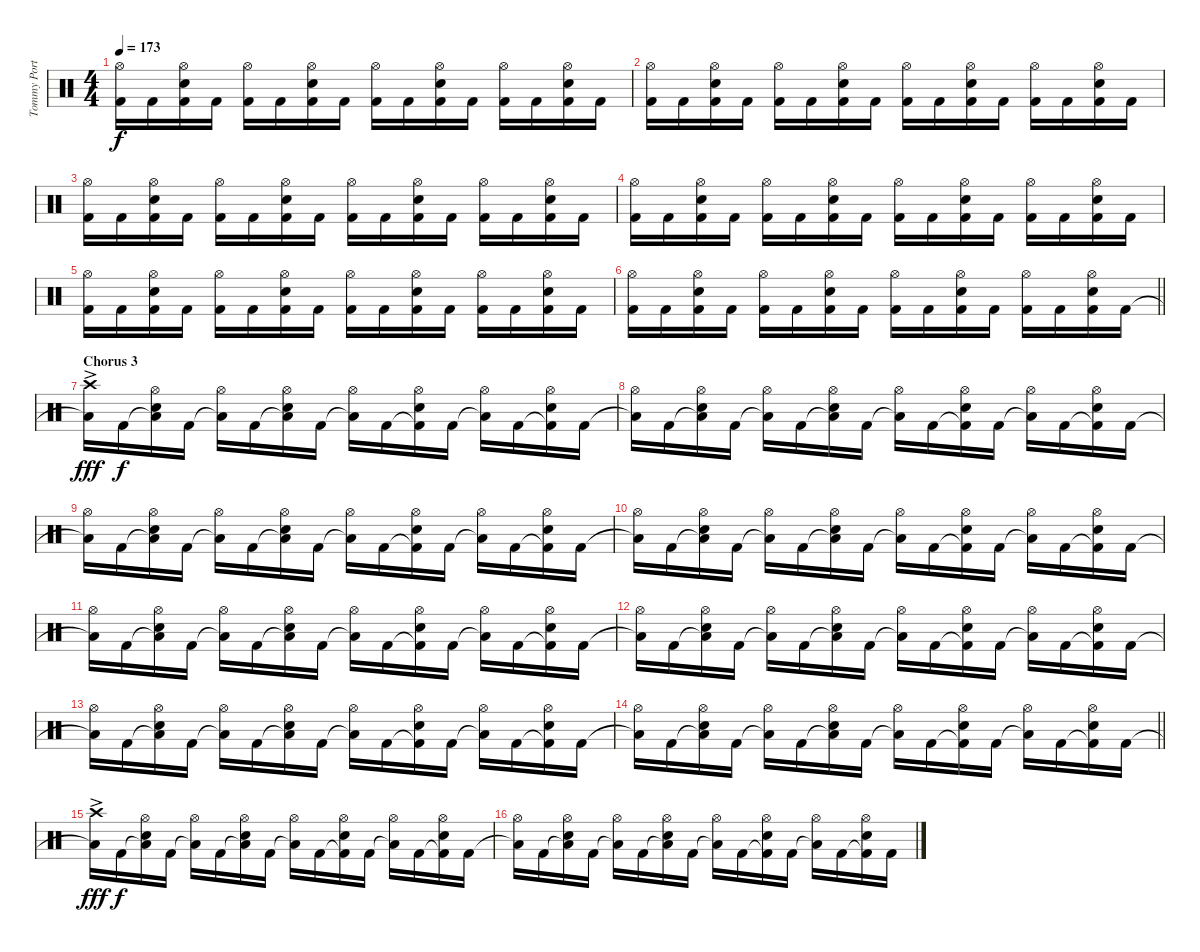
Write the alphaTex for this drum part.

\track ("Tommy Portimo - Drums" "Tommy Port") {instrument percussion}
\staff {score}
\articulation defaults
\ts (4 4)
\tempo 173
\clef neutral
\ks c
("Kick (hit) 2" "Hi-Hat (open)").16{dy f} "Kick (hit) 2".16 ("Kick (hit) 2" "Electric Snare (hit)" "Hi-Hat (open)").16 "Kick (hit) 2".16 ("Kick (hit) 2" "Hi-Hat (open)").16 "Kick (hit) 2".16 ("Kick (hit) 2" "Electric Snare (hit)" "Hi-Hat (open)").16 "Kick (hit) 2".16 ("Kick (hit) 2" "Hi-Hat (open)").16 "Kick (hit) 2".16 ("Kick (hit) 2" "Electric Snare (hit)" "Hi-Hat (open)").16 "Kick (hit) 2".16 ("Kick (hit) 2" "Hi-Hat (open)").16 "Kick (hit) 2".16 ("Kick (hit) 2" "Electric Snare (hit)" "Hi-Hat (open)").16 "Kick (hit) 2".16 |
("Kick (hit) 2" "Hi-Hat (open)").16 "Kick (hit) 2".16 ("Kick (hit) 2" "Electric Snare (hit)" "Hi-Hat (open)").16 "Kick (hit) 2".16 ("Kick (hit) 2" "Hi-Hat (open)").16 "Kick (hit) 2".16 ("Kick (hit) 2" "Electric Snare (hit)" "Hi-Hat (open)").16 "Kick (hit) 2".16 ("Kick (hit) 2" "Hi-Hat (open)").16 "Kick (hit) 2".16 ("Kick (hit) 2" "Electric Snare (hit)" "Hi-Hat (open)").16 "Kick (hit) 2".16 ("Kick (hit) 2" "Hi-Hat (open)").16 "Kick (hit) 2".16 ("Kick (hit) 2" "Electric Snare (hit)" "Hi-Hat (open)").16 "Kick (hit) 2".16 |
("Kick (hit) 2" "Hi-Hat (open)").16 "Kick (hit) 2".16 ("Kick (hit) 2" "Electric Snare (hit)" "Hi-Hat (open)").16 "Kick (hit) 2".16 ("Kick (hit) 2" "Hi-Hat (open)").16 "Kick (hit) 2".16 ("Kick (hit) 2" "Electric Snare (hit)" "Hi-Hat (open)").16 "Kick (hit) 2".16 ("Kick (hit) 2" "Hi-Hat (open)").16 "Kick (hit) 2".16 ("Kick (hit) 2" "Electric Snare (hit)" "Hi-Hat (open)").16 "Kick (hit) 2".16 ("Kick (hit) 2" "Hi-Hat (open)").16 "Kick (hit) 2".16 ("Kick (hit) 2" "Electric Snare (hit)" "Hi-Hat (open)").16 "Kick (hit) 2".16 |
("Kick (hit) 2" "Hi-Hat (open)").16 "Kick (hit) 2".16 ("Kick (hit) 2" "Electric Snare (hit)" "Hi-Hat (open)").16 "Kick (hit) 2".16 ("Kick (hit) 2" "Hi-Hat (open)").16 "Kick (hit) 2".16 ("Kick (hit) 2" "Electric Snare (hit)" "Hi-Hat (open)").16 "Kick (hit) 2".16 ("Kick (hit) 2" "Hi-Hat (open)").16 "Kick (hit) 2".16 ("Kick (hit) 2" "Electric Snare (hit)" "Hi-Hat (open)").16 "Kick (hit) 2".16 ("Kick (hit) 2" "Hi-Hat (open)").16 "Kick (hit) 2".16 ("Kick (hit) 2" "Electric Snare (hit)" "Hi-Hat (open)").16 "Kick (hit) 2".16 |
("Kick (hit) 2" "Hi-Hat (open)").16 "Kick (hit) 2".16 ("Kick (hit) 2" "Electric Snare (hit)" "Hi-Hat (open)").16 "Kick (hit) 2".16 ("Kick (hit) 2" "Hi-Hat (open)").16 "Kick (hit) 2".16 ("Kick (hit) 2" "Electric Snare (hit)" "Hi-Hat (open)").16 "Kick (hit) 2".16 ("Kick (hit) 2" "Hi-Hat (open)").16 "Kick (hit) 2".16 ("Kick (hit) 2" "Electric Snare (hit)" "Hi-Hat (open)").16 "Kick (hit) 2".16 ("Kick (hit) 2" "Hi-Hat (open)").16 "Kick (hit) 2".16 ("Kick (hit) 2" "Electric Snare (hit)" "Hi-Hat (open)").16 "Kick (hit) 2".16 |
\barLineRight lightlight
("Kick (hit) 2" "Hi-Hat (open)").16 "Kick (hit) 2".16 ("Kick (hit) 2" "Electric Snare (hit)" "Hi-Hat (open)").16 "Kick (hit) 2".16 ("Kick (hit) 2" "Hi-Hat (open)").16 "Kick (hit) 2".16 ("Kick (hit) 2" "Electric Snare (hit)" "Hi-Hat (open)").16 "Kick (hit) 2".16 ("Kick (hit) 2" "Hi-Hat (open)").16 "Kick (hit) 2".16 ("Kick (hit) 2" "Electric Snare (hit)" "Hi-Hat (open)").16 "Kick (hit) 2".16 ("Kick (hit) 2" "Hi-Hat (open)").16 "Kick (hit) 2".16 ("Kick (hit) 2" "Electric Snare (hit)" "Hi-Hat (open)").16 "Kick (hit) 2".16 |
\section ("" "Chorus 3")
("Low Floor Tom (hit)"{t} "Crash high (hit)"{ac}).16{dy fff} "Kick (hit) 2".16{dy f} ("Low Floor Tom (hit)"{t} "Electric Snare (hit)" "Hi-Hat (open)").16 "Kick (hit) 2".16 ("Low Floor Tom (hit)"{t} "Hi-Hat (open)").16 "Kick (hit) 2".16 ("Low Floor Tom (hit)"{t} "Electric Snare (hit)" "Hi-Hat (open)").16 "Kick (hit) 2".16 ("Low Floor Tom (hit)"{t} "Hi-Hat (open)").16 "Kick (hit) 2".16 ("Kick (hit) 2"{t} "Electric Snare (hit)" "Hi-Hat (open)").16 "Kick (hit) 2".16 ("Low Floor Tom (hit)"{t} "Hi-Hat (open)").16 "Kick (hit) 2".16 ("Kick (hit) 2"{t} "Electric Snare (hit)" "Hi-Hat (open)").16 "Kick (hit) 2".16 |
("Low Floor Tom (hit)"{t} "Hi-Hat (open)").16 "Kick (hit) 2".16 ("Low Floor Tom (hit)"{t} "Electric Snare (hit)" "Hi-Hat (open)").16 "Kick (hit) 2".16 ("Low Floor Tom (hit)"{t} "Hi-Hat (open)").16 "Kick (hit) 2".16 ("Low Floor Tom (hit)"{t} "Electric Snare (hit)" "Hi-Hat (open)").16 "Kick (hit) 2".16 ("Low Floor Tom (hit)"{t} "Hi-Hat (open)").16 "Kick (hit) 2".16 ("Kick (hit) 2"{t} "Electric Snare (hit)" "Hi-Hat (open)").16 "Kick (hit) 2".16 ("Low Floor Tom (hit)"{t} "Hi-Hat (open)").16 "Kick (hit) 2".16 ("Kick (hit) 2"{t} "Electric Snare (hit)" "Hi-Hat (open)").16 "Kick (hit) 2".16 |
("Low Floor Tom (hit)"{t} "Hi-Hat (open)").16 "Kick (hit) 2".16 ("Low Floor Tom (hit)"{t} "Electric Snare (hit)" "Hi-Hat (open)").16 "Kick (hit) 2".16 ("Low Floor Tom (hit)"{t} "Hi-Hat (open)").16 "Kick (hit) 2".16 ("Low Floor Tom (hit)"{t} "Electric Snare (hit)" "Hi-Hat (open)").16 "Kick (hit) 2".16 ("Low Floor Tom (hit)"{t} "Hi-Hat (open)").16 "Kick (hit) 2".16 ("Kick (hit) 2"{t} "Electric Snare (hit)" "Hi-Hat (open)").16 "Kick (hit) 2".16 ("Low Floor Tom (hit)"{t} "Hi-Hat (open)").16 "Kick (hit) 2".16 ("Kick (hit) 2"{t} "Electric Snare (hit)" "Hi-Hat (open)").16 "Kick (hit) 2".16 |
("Low Floor Tom (hit)"{t} "Hi-Hat (open)").16 "Kick (hit) 2".16 ("Low Floor Tom (hit)"{t} "Electric Snare (hit)" "Hi-Hat (open)").16 "Kick (hit) 2".16 ("Low Floor Tom (hit)"{t} "Hi-Hat (open)").16 "Kick (hit) 2".16 ("Low Floor Tom (hit)"{t} "Electric Snare (hit)" "Hi-Hat (open)").16 "Kick (hit) 2".16 ("Low Floor Tom (hit)"{t} "Hi-Hat (open)").16 "Kick (hit) 2".16 ("Kick (hit) 2"{t} "Electric Snare (hit)" "Hi-Hat (open)").16 "Kick (hit) 2".16 ("Low Floor Tom (hit)"{t} "Hi-Hat (open)").16 "Kick (hit) 2".16 ("Kick (hit) 2"{t} "Electric Snare (hit)" "Hi-Hat (open)").16 "Kick (hit) 2".16 |
("Low Floor Tom (hit)"{t} "Hi-Hat (open)").16 "Kick (hit) 2".16 ("Low Floor Tom (hit)"{t} "Electric Snare (hit)" "Hi-Hat (open)").16 "Kick (hit) 2".16 ("Low Floor Tom (hit)"{t} "Hi-Hat (open)").16 "Kick (hit) 2".16 ("Low Floor Tom (hit)"{t} "Electric Snare (hit)" "Hi-Hat (open)").16 "Kick (hit) 2".16 ("Low Floor Tom (hit)"{t} "Hi-Hat (open)").16 "Kick (hit) 2".16 ("Kick (hit) 2"{t} "Electric Snare (hit)" "Hi-Hat (open)").16 "Kick (hit) 2".16 ("Low Floor Tom (hit)"{t} "Hi-Hat (open)").16 "Kick (hit) 2".16 ("Kick (hit) 2"{t} "Electric Snare (hit)" "Hi-Hat (open)").16 "Kick (hit) 2".16 |
("Low Floor Tom (hit)"{t} "Hi-Hat (open)").16 "Kick (hit) 2".16 ("Low Floor Tom (hit)"{t} "Electric Snare (hit)" "Hi-Hat (open)").16 "Kick (hit) 2".16 ("Low Floor Tom (hit)"{t} "Hi-Hat (open)").16 "Kick (hit) 2".16 ("Low Floor Tom (hit)"{t} "Electric Snare (hit)" "Hi-Hat (open)").16 "Kick (hit) 2".16 ("Low Floor Tom (hit)"{t} "Hi-Hat (open)").16 "Kick (hit) 2".16 ("Kick (hit) 2"{t} "Electric Snare (hit)" "Hi-Hat (open)").16 "Kick (hit) 2".16 ("Low Floor Tom (hit)"{t} "Hi-Hat (open)").16 "Kick (hit) 2".16 ("Kick (hit) 2"{t} "Electric Snare (hit)" "Hi-Hat (open)").16 "Kick (hit) 2".16 |
("Low Floor Tom (hit)"{t} "Hi-Hat (open)").16 "Kick (hit) 2".16 ("Low Floor Tom (hit)"{t} "Electric Snare (hit)" "Hi-Hat (open)").16 "Kick (hit) 2".16 ("Low Floor Tom (hit)"{t} "Hi-Hat (open)").16 "Kick (hit) 2".16 ("Low Floor Tom (hit)"{t} "Electric Snare (hit)" "Hi-Hat (open)").16 "Kick (hit) 2".16 ("Low Floor Tom (hit)"{t} "Hi-Hat (open)").16 "Kick (hit) 2".16 ("Kick (hit) 2"{t} "Electric Snare (hit)" "Hi-Hat (open)").16 "Kick (hit) 2".16 ("Low Floor Tom (hit)"{t} "Hi-Hat (open)").16 "Kick (hit) 2".16 ("Kick (hit) 2"{t} "Electric Snare (hit)" "Hi-Hat (open)").16 "Kick (hit) 2".16 |
\barLineRight lightlight
("Low Floor Tom (hit)"{t} "Hi-Hat (open)").16 "Kick (hit) 2".16 ("Low Floor Tom (hit)"{t} "Electric Snare (hit)" "Hi-Hat (open)").16 "Kick (hit) 2".16 ("Low Floor Tom (hit)"{t} "Hi-Hat (open)").16 "Kick (hit) 2".16 ("Low Floor Tom (hit)"{t} "Electric Snare (hit)" "Hi-Hat (open)").16 "Kick (hit) 2".16 ("Low Floor Tom (hit)"{t} "Hi-Hat (open)").16 "Kick (hit) 2".16 ("Kick (hit) 2"{t} "Electric Snare (hit)" "Hi-Hat (open)").16 "Kick (hit) 2".16 ("Low Floor Tom (hit)"{t} "Hi-Hat (open)").16 "Kick (hit) 2".16 ("Kick (hit) 2"{t} "Electric Snare (hit)" "Hi-Hat (open)").16 "Kick (hit) 2".16 |
("Low Floor Tom (hit)"{t} "Crash high (hit)"{ac}).16{dy fff} "Kick (hit) 2".16{dy f} ("Low Floor Tom (hit)"{t} "Electric Snare (hit)" "Hi-Hat (open)").16 "Kick (hit) 2".16 ("Low Floor Tom (hit)"{t} "Hi-Hat (open)").16 "Kick (hit) 2".16 ("Low Floor Tom (hit)"{t} "Electric Snare (hit)" "Hi-Hat (open)").16 "Kick (hit) 2".16 ("Low Floor Tom (hit)"{t} "Hi-Hat (open)").16 "Kick (hit) 2".16 ("Kick (hit) 2"{t} "Electric Snare (hit)" "Hi-Hat (open)").16 "Kick (hit) 2".16 ("Low Floor Tom (hit)"{t} "Hi-Hat (open)").16 "Kick (hit) 2".16 ("Kick (hit) 2"{t} "Electric Snare (hit)" "Hi-Hat (open)").16 "Kick (hit) 2".16 |
("Low Floor Tom (hit)"{t} "Hi-Hat (open)").16 "Kick (hit) 2".16 ("Low Floor Tom (hit)"{t} "Electric Snare (hit)" "Hi-Hat (open)").16 "Kick (hit) 2".16 ("Low Floor Tom (hit)"{t} "Hi-Hat (open)").16 "Kick (hit) 2".16 ("Low Floor Tom (hit)"{t} "Electric Snare (hit)" "Hi-Hat (open)").16 "Kick (hit) 2".16 ("Low Floor Tom (hit)"{t} "Hi-Hat (open)").16 "Kick (hit) 2".16 ("Kick (hit) 2"{t} "Electric Snare (hit)" "Hi-Hat (open)").16 "Kick (hit) 2".16 ("Low Floor Tom (hit)"{t} "Hi-Hat (open)").16 "Kick (hit) 2".16 ("Kick (hit) 2"{t} "Electric Snare (hit)" "Hi-Hat (open)").16 "Kick (hit) 2".16
